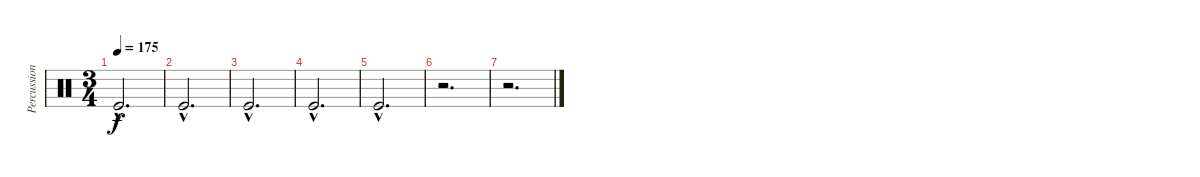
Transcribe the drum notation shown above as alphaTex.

\track ("Percussion" "Percussion") {instrument percussion}
\staff {score}
\articulation defaults
\ts (3 4)
\tempo 175
\clef neutral
\ks c "Kick (hit)"{hac}.2{d dy f}
|
"Kick (hit)"{hac}.2{d} |
"Kick (hit)"{hac}.2{d} |
"Kick (hit)"{hac}.2{d} |
"Kick (hit)"{hac}.2{d} |
r.2{d} |
r.2{d}
